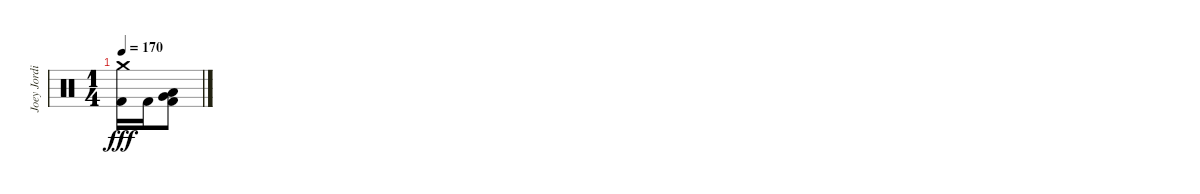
\track ("Joey Jordison" "Joey Jordi") {instrument percussion}
\staff {score}
\articulation defaults
\ts (1 4)
\tempo 170
\clef neutral
\ks c
("Crash medium (hit)" "Kick (hit) 2").16{dy fff} "Kick (hit) 2".16 ("Very Low Tom (hit)" "Low Floor Tom (hit)" "Kick (hit) 2").8
